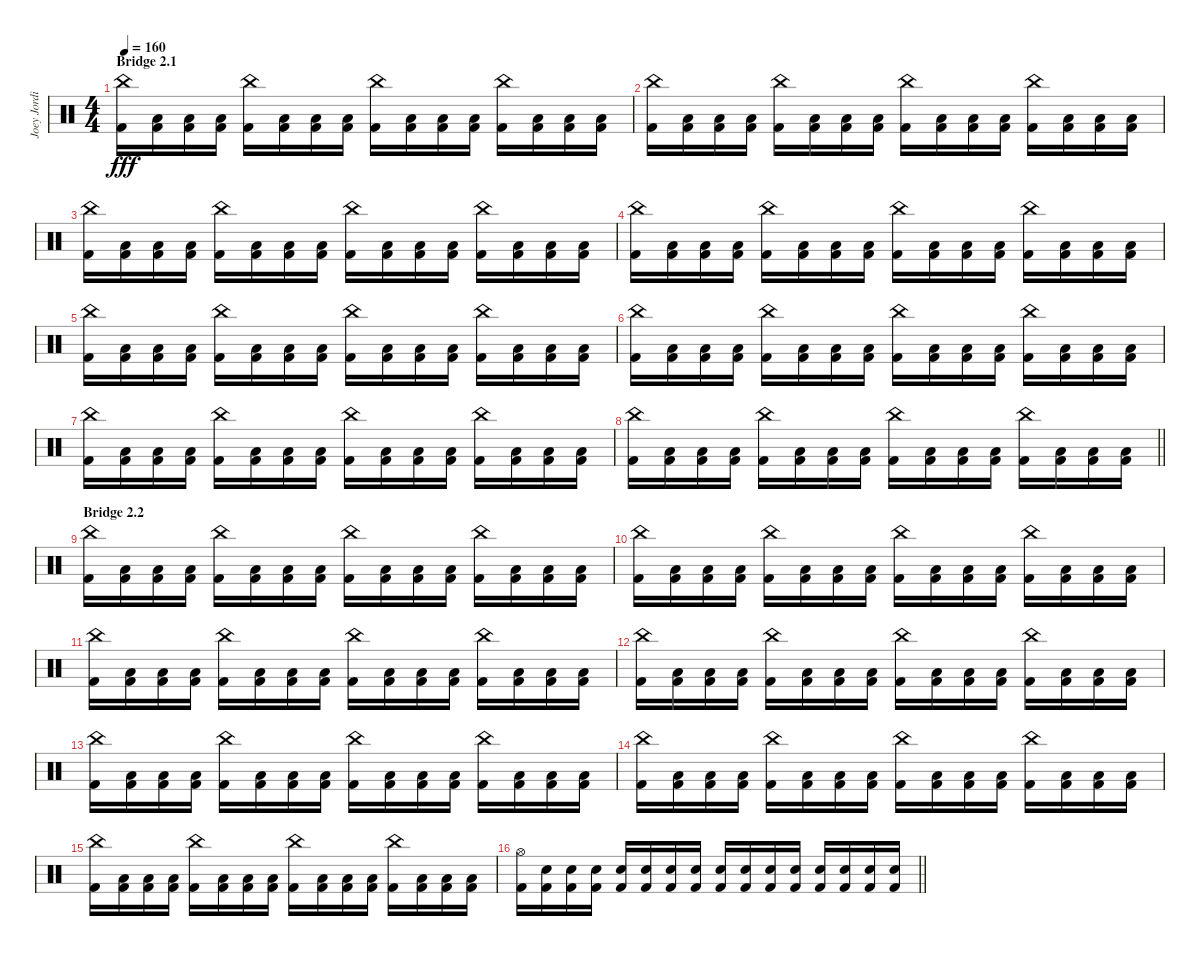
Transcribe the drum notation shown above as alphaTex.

\track ("Joey Jordison" "Joey Jordi") {instrument percussion}
\staff {score}
\articulation defaults
\ts (4 4)
\section ("" "Bridge 2.1")
\tempo 160
\clef neutral
\ks c
("China (hit)" "Kick (hit) 2").16{dy fff} ("Low Floor Tom (hit)" "Kick (hit) 2").16 ("Low Floor Tom (hit)" "Kick (hit) 2").16 ("Low Floor Tom (hit)" "Kick (hit) 2").16 ("China (hit)" "Kick (hit) 2").16 ("Low Floor Tom (hit)" "Kick (hit) 2").16 ("Low Floor Tom (hit)" "Kick (hit) 2").16 ("Low Floor Tom (hit)" "Kick (hit) 2").16 ("China (hit)" "Kick (hit) 2").16 ("Low Floor Tom (hit)" "Kick (hit) 2").16 ("Low Floor Tom (hit)" "Kick (hit) 2").16 ("Low Floor Tom (hit)" "Kick (hit) 2").16 ("China (hit)" "Kick (hit) 2").16 ("Low Floor Tom (hit)" "Kick (hit) 2").16 ("Low Floor Tom (hit)" "Kick (hit) 2").16 ("Low Floor Tom (hit)" "Kick (hit) 2").16 |
("China (hit)" "Kick (hit) 2").16 ("Low Floor Tom (hit)" "Kick (hit) 2").16 ("Low Floor Tom (hit)" "Kick (hit) 2").16 ("Low Floor Tom (hit)" "Kick (hit) 2").16 ("China (hit)" "Kick (hit) 2").16 ("Low Floor Tom (hit)" "Kick (hit) 2").16 ("Low Floor Tom (hit)" "Kick (hit) 2").16 ("Low Floor Tom (hit)" "Kick (hit) 2").16 ("China (hit)" "Kick (hit) 2").16 ("Low Floor Tom (hit)" "Kick (hit) 2").16 ("Low Floor Tom (hit)" "Kick (hit) 2").16 ("Low Floor Tom (hit)" "Kick (hit) 2").16 ("China (hit)" "Kick (hit) 2").16 ("Low Floor Tom (hit)" "Kick (hit) 2").16 ("Low Floor Tom (hit)" "Kick (hit) 2").16 ("Low Floor Tom (hit)" "Kick (hit) 2").16 |
("China (hit)" "Kick (hit) 2").16 ("Low Floor Tom (hit)" "Kick (hit) 2").16 ("Low Floor Tom (hit)" "Kick (hit) 2").16 ("Low Floor Tom (hit)" "Kick (hit) 2").16 ("China (hit)" "Kick (hit) 2").16 ("Low Floor Tom (hit)" "Kick (hit) 2").16 ("Low Floor Tom (hit)" "Kick (hit) 2").16 ("Low Floor Tom (hit)" "Kick (hit) 2").16 ("China (hit)" "Kick (hit) 2").16 ("Low Floor Tom (hit)" "Kick (hit) 2").16 ("Low Floor Tom (hit)" "Kick (hit) 2").16 ("Low Floor Tom (hit)" "Kick (hit) 2").16 ("China (hit)" "Kick (hit) 2").16 ("Low Floor Tom (hit)" "Kick (hit) 2").16 ("Low Floor Tom (hit)" "Kick (hit) 2").16 ("Low Floor Tom (hit)" "Kick (hit) 2").16 |
("China (hit)" "Kick (hit) 2").16 ("Low Floor Tom (hit)" "Kick (hit) 2").16 ("Low Floor Tom (hit)" "Kick (hit) 2").16 ("Low Floor Tom (hit)" "Kick (hit) 2").16 ("China (hit)" "Kick (hit) 2").16 ("Low Floor Tom (hit)" "Kick (hit) 2").16 ("Low Floor Tom (hit)" "Kick (hit) 2").16 ("Low Floor Tom (hit)" "Kick (hit) 2").16 ("China (hit)" "Kick (hit) 2").16 ("Low Floor Tom (hit)" "Kick (hit) 2").16 ("Low Floor Tom (hit)" "Kick (hit) 2").16 ("Low Floor Tom (hit)" "Kick (hit) 2").16 ("China (hit)" "Kick (hit) 2").16 ("Low Floor Tom (hit)" "Kick (hit) 2").16 ("Low Floor Tom (hit)" "Kick (hit) 2").16 ("Low Floor Tom (hit)" "Kick (hit) 2").16 |
("China (hit)" "Kick (hit) 2").16 ("Low Floor Tom (hit)" "Kick (hit) 2").16 ("Low Floor Tom (hit)" "Kick (hit) 2").16 ("Low Floor Tom (hit)" "Kick (hit) 2").16 ("China (hit)" "Kick (hit) 2").16 ("Low Floor Tom (hit)" "Kick (hit) 2").16 ("Low Floor Tom (hit)" "Kick (hit) 2").16 ("Low Floor Tom (hit)" "Kick (hit) 2").16 ("China (hit)" "Kick (hit) 2").16 ("Low Floor Tom (hit)" "Kick (hit) 2").16 ("Low Floor Tom (hit)" "Kick (hit) 2").16 ("Low Floor Tom (hit)" "Kick (hit) 2").16 ("China (hit)" "Kick (hit) 2").16 ("Low Floor Tom (hit)" "Kick (hit) 2").16 ("Low Floor Tom (hit)" "Kick (hit) 2").16 ("Low Floor Tom (hit)" "Kick (hit) 2").16 |
("China (hit)" "Kick (hit) 2").16 ("Low Floor Tom (hit)" "Kick (hit) 2").16 ("Low Floor Tom (hit)" "Kick (hit) 2").16 ("Low Floor Tom (hit)" "Kick (hit) 2").16 ("China (hit)" "Kick (hit) 2").16 ("Low Floor Tom (hit)" "Kick (hit) 2").16 ("Low Floor Tom (hit)" "Kick (hit) 2").16 ("Low Floor Tom (hit)" "Kick (hit) 2").16 ("China (hit)" "Kick (hit) 2").16 ("Low Floor Tom (hit)" "Kick (hit) 2").16 ("Low Floor Tom (hit)" "Kick (hit) 2").16 ("Low Floor Tom (hit)" "Kick (hit) 2").16 ("China (hit)" "Kick (hit) 2").16 ("Low Floor Tom (hit)" "Kick (hit) 2").16 ("Low Floor Tom (hit)" "Kick (hit) 2").16 ("Low Floor Tom (hit)" "Kick (hit) 2").16 |
("China (hit)" "Kick (hit) 2").16 ("Low Floor Tom (hit)" "Kick (hit) 2").16 ("Low Floor Tom (hit)" "Kick (hit) 2").16 ("Low Floor Tom (hit)" "Kick (hit) 2").16 ("China (hit)" "Kick (hit) 2").16 ("Low Floor Tom (hit)" "Kick (hit) 2").16 ("Low Floor Tom (hit)" "Kick (hit) 2").16 ("Low Floor Tom (hit)" "Kick (hit) 2").16 ("China (hit)" "Kick (hit) 2").16 ("Low Floor Tom (hit)" "Kick (hit) 2").16 ("Low Floor Tom (hit)" "Kick (hit) 2").16 ("Low Floor Tom (hit)" "Kick (hit) 2").16 ("China (hit)" "Kick (hit) 2").16 ("Low Floor Tom (hit)" "Kick (hit) 2").16 ("Low Floor Tom (hit)" "Kick (hit) 2").16 ("Low Floor Tom (hit)" "Kick (hit) 2").16 |
\barLineRight lightlight
("China (hit)" "Kick (hit) 2").16 ("Low Floor Tom (hit)" "Kick (hit) 2").16 ("Low Floor Tom (hit)" "Kick (hit) 2").16 ("Low Floor Tom (hit)" "Kick (hit) 2").16 ("China (hit)" "Kick (hit) 2").16 ("Low Floor Tom (hit)" "Kick (hit) 2").16 ("Low Floor Tom (hit)" "Kick (hit) 2").16 ("Low Floor Tom (hit)" "Kick (hit) 2").16 ("China (hit)" "Kick (hit) 2").16 ("Low Floor Tom (hit)" "Kick (hit) 2").16 ("Low Floor Tom (hit)" "Kick (hit) 2").16 ("Low Floor Tom (hit)" "Kick (hit) 2").16 ("China (hit)" "Kick (hit) 2").16 ("Low Floor Tom (hit)" "Kick (hit) 2").16 ("Low Floor Tom (hit)" "Kick (hit) 2").16 ("Low Floor Tom (hit)" "Kick (hit) 2").16 |
\section ("" "Bridge 2.2")
("China (hit)" "Kick (hit) 2").16 ("Low Floor Tom (hit)" "Kick (hit) 2").16 ("Low Floor Tom (hit)" "Kick (hit) 2").16 ("Low Floor Tom (hit)" "Kick (hit) 2").16 ("China (hit)" "Kick (hit) 2").16 ("Low Floor Tom (hit)" "Kick (hit) 2").16 ("Low Floor Tom (hit)" "Kick (hit) 2").16 ("Low Floor Tom (hit)" "Kick (hit) 2").16 ("China (hit)" "Kick (hit) 2").16 ("Low Floor Tom (hit)" "Kick (hit) 2").16 ("Low Floor Tom (hit)" "Kick (hit) 2").16 ("Low Floor Tom (hit)" "Kick (hit) 2").16 ("China (hit)" "Kick (hit) 2").16 ("Low Floor Tom (hit)" "Kick (hit) 2").16 ("Low Floor Tom (hit)" "Kick (hit) 2").16 ("Low Floor Tom (hit)" "Kick (hit) 2").16 |
("China (hit)" "Kick (hit) 2").16 ("Low Floor Tom (hit)" "Kick (hit) 2").16 ("Low Floor Tom (hit)" "Kick (hit) 2").16 ("Low Floor Tom (hit)" "Kick (hit) 2").16 ("China (hit)" "Kick (hit) 2").16 ("Low Floor Tom (hit)" "Kick (hit) 2").16 ("Low Floor Tom (hit)" "Kick (hit) 2").16 ("Low Floor Tom (hit)" "Kick (hit) 2").16 ("China (hit)" "Kick (hit) 2").16 ("Low Floor Tom (hit)" "Kick (hit) 2").16 ("Low Floor Tom (hit)" "Kick (hit) 2").16 ("Low Floor Tom (hit)" "Kick (hit) 2").16 ("China (hit)" "Kick (hit) 2").16 ("Low Floor Tom (hit)" "Kick (hit) 2").16 ("Low Floor Tom (hit)" "Kick (hit) 2").16 ("Low Floor Tom (hit)" "Kick (hit) 2").16 |
("China (hit)" "Kick (hit) 2").16 ("Low Floor Tom (hit)" "Kick (hit) 2").16 ("Low Floor Tom (hit)" "Kick (hit) 2").16 ("Low Floor Tom (hit)" "Kick (hit) 2").16 ("China (hit)" "Kick (hit) 2").16 ("Low Floor Tom (hit)" "Kick (hit) 2").16 ("Low Floor Tom (hit)" "Kick (hit) 2").16 ("Low Floor Tom (hit)" "Kick (hit) 2").16 ("China (hit)" "Kick (hit) 2").16 ("Low Floor Tom (hit)" "Kick (hit) 2").16 ("Low Floor Tom (hit)" "Kick (hit) 2").16 ("Low Floor Tom (hit)" "Kick (hit) 2").16 ("China (hit)" "Kick (hit) 2").16 ("Low Floor Tom (hit)" "Kick (hit) 2").16 ("Low Floor Tom (hit)" "Kick (hit) 2").16 ("Low Floor Tom (hit)" "Kick (hit) 2").16 |
("China (hit)" "Kick (hit) 2").16 ("Low Floor Tom (hit)" "Kick (hit) 2").16 ("Low Floor Tom (hit)" "Kick (hit) 2").16 ("Low Floor Tom (hit)" "Kick (hit) 2").16 ("China (hit)" "Kick (hit) 2").16 ("Low Floor Tom (hit)" "Kick (hit) 2").16 ("Low Floor Tom (hit)" "Kick (hit) 2").16 ("Low Floor Tom (hit)" "Kick (hit) 2").16 ("China (hit)" "Kick (hit) 2").16 ("Low Floor Tom (hit)" "Kick (hit) 2").16 ("Low Floor Tom (hit)" "Kick (hit) 2").16 ("Low Floor Tom (hit)" "Kick (hit) 2").16 ("China (hit)" "Kick (hit) 2").16 ("Low Floor Tom (hit)" "Kick (hit) 2").16 ("Low Floor Tom (hit)" "Kick (hit) 2").16 ("Low Floor Tom (hit)" "Kick (hit) 2").16 |
("China (hit)" "Kick (hit) 2").16 ("Low Floor Tom (hit)" "Kick (hit) 2").16 ("Low Floor Tom (hit)" "Kick (hit) 2").16 ("Low Floor Tom (hit)" "Kick (hit) 2").16 ("China (hit)" "Kick (hit) 2").16 ("Low Floor Tom (hit)" "Kick (hit) 2").16 ("Low Floor Tom (hit)" "Kick (hit) 2").16 ("Low Floor Tom (hit)" "Kick (hit) 2").16 ("China (hit)" "Kick (hit) 2").16 ("Low Floor Tom (hit)" "Kick (hit) 2").16 ("Low Floor Tom (hit)" "Kick (hit) 2").16 ("Low Floor Tom (hit)" "Kick (hit) 2").16 ("China (hit)" "Kick (hit) 2").16 ("Low Floor Tom (hit)" "Kick (hit) 2").16 ("Low Floor Tom (hit)" "Kick (hit) 2").16 ("Low Floor Tom (hit)" "Kick (hit) 2").16 |
("China (hit)" "Kick (hit) 2").16 ("Low Floor Tom (hit)" "Kick (hit) 2").16 ("Low Floor Tom (hit)" "Kick (hit) 2").16 ("Low Floor Tom (hit)" "Kick (hit) 2").16 ("China (hit)" "Kick (hit) 2").16 ("Low Floor Tom (hit)" "Kick (hit) 2").16 ("Low Floor Tom (hit)" "Kick (hit) 2").16 ("Low Floor Tom (hit)" "Kick (hit) 2").16 ("China (hit)" "Kick (hit) 2").16 ("Low Floor Tom (hit)" "Kick (hit) 2").16 ("Low Floor Tom (hit)" "Kick (hit) 2").16 ("Low Floor Tom (hit)" "Kick (hit) 2").16 ("China (hit)" "Kick (hit) 2").16 ("Low Floor Tom (hit)" "Kick (hit) 2").16 ("Low Floor Tom (hit)" "Kick (hit) 2").16 ("Low Floor Tom (hit)" "Kick (hit) 2").16 |
("China (hit)" "Kick (hit) 2").16 ("Low Floor Tom (hit)" "Kick (hit) 2").16 ("Low Floor Tom (hit)" "Kick (hit) 2").16 ("Low Floor Tom (hit)" "Kick (hit) 2").16 ("China (hit)" "Kick (hit) 2").16 ("Low Floor Tom (hit)" "Kick (hit) 2").16 ("Low Floor Tom (hit)" "Kick (hit) 2").16 ("Low Floor Tom (hit)" "Kick (hit) 2").16 ("China (hit)" "Kick (hit) 2").16 ("Low Floor Tom (hit)" "Kick (hit) 2").16 ("Low Floor Tom (hit)" "Kick (hit) 2").16 ("Low Floor Tom (hit)" "Kick (hit) 2").16 ("China (hit)" "Kick (hit) 2").16 ("Low Floor Tom (hit)" "Kick (hit) 2").16 ("Low Floor Tom (hit)" "Kick (hit) 2").16 ("Low Floor Tom (hit)" "Kick (hit) 2").16 |
\barLineRight lightlight
("Hi-Hat (open)" "Kick (hit) 2").16 ("Electric Snare (hit)" "Kick (hit) 2").16 ("Electric Snare (hit)" "Kick (hit) 2").16 ("Electric Snare (hit)" "Kick (hit) 2").16 ("Electric Snare (hit)" "Kick (hit) 2").16 ("Electric Snare (hit)" "Kick (hit) 2").16 ("Electric Snare (hit)" "Kick (hit) 2").16 ("Electric Snare (hit)" "Kick (hit) 2").16 ("Electric Snare (hit)" "Kick (hit) 2").16 ("Electric Snare (hit)" "Kick (hit) 2").16 ("Electric Snare (hit)" "Kick (hit) 2").16 ("Electric Snare (hit)" "Kick (hit) 2").16 ("Electric Snare (hit)" "Kick (hit) 2").16 ("Electric Snare (hit)" "Kick (hit) 2").16 ("Electric Snare (hit)" "Kick (hit) 2").16 ("Electric Snare (hit)" "Kick (hit) 2").16
